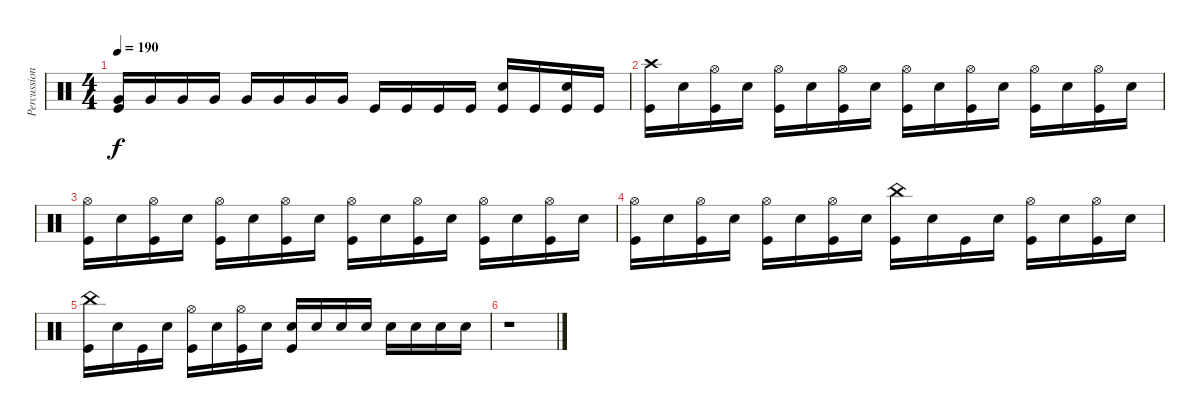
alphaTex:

\track ("Percussion" "Percussion") {instrument percussion}
\staff {score}
\articulation defaults
\ts (4 4)
\tempo 190
\clef neutral
\ks c
("Very Low Tom (hit)" "Kick (hit)").16{dy f} "Very Low Tom (hit)".16 "Very Low Tom (hit)".16 "Very Low Tom (hit)".16 "Very Low Tom (hit)".16 "Very Low Tom (hit)".16 "Very Low Tom (hit)".16 "Very Low Tom (hit)".16 "Kick (hit)".16 "Kick (hit)".16 "Kick (hit)".16 "Kick (hit)".16 ("Snare (hit) 2" "Kick (hit)").16 "Kick (hit)".16 ("Snare (hit) 2" "Kick (hit)").16 "Kick (hit)".16 |
("Crash high (hit)" "Kick (hit)").16 "Snare (hit) 2".16 ("Hi-Hat (open)" "Kick (hit)").16 "Snare (hit) 2".16 ("Hi-Hat (open)" "Kick (hit)").16 "Snare (hit) 2".16 ("Hi-Hat (open)" "Kick (hit)").16 "Snare (hit) 2".16 ("Hi-Hat (open)" "Kick (hit)").16 "Snare (hit) 2".16 ("Hi-Hat (open)" "Kick (hit)").16 "Snare (hit) 2".16 ("Hi-Hat (open)" "Kick (hit)").16 "Snare (hit) 2".16 ("Hi-Hat (open)" "Kick (hit)").16 "Snare (hit) 2".16 |
("Hi-Hat (open)" "Kick (hit)").16 "Snare (hit) 2".16 ("Hi-Hat (open)" "Kick (hit)").16 "Snare (hit) 2".16 ("Hi-Hat (open)" "Kick (hit)").16 "Snare (hit) 2".16 ("Hi-Hat (open)" "Kick (hit)").16 "Snare (hit) 2".16 ("Hi-Hat (open)" "Kick (hit)").16 "Snare (hit) 2".16 ("Hi-Hat (open)" "Kick (hit)").16 "Snare (hit) 2".16 ("Hi-Hat (open)" "Kick (hit)").16 "Snare (hit) 2".16 ("Hi-Hat (open)" "Kick (hit)").16 "Snare (hit) 2".16 |
("Hi-Hat (open)" "Kick (hit)").16 "Snare (hit) 2".16 ("Hi-Hat (open)" "Kick (hit)").16 "Snare (hit) 2".16 ("Hi-Hat (open)" "Kick (hit)").16 "Snare (hit) 2".16 ("Hi-Hat (open)" "Kick (hit)").16 "Snare (hit) 2".16 ("China (hit)" "Kick (hit)").16 "Snare (hit) 2".16 "Kick (hit)".16 "Snare (hit) 2".16 ("Hi-Hat (open)" "Kick (hit)").16 "Snare (hit) 2".16 ("Hi-Hat (open)" "Kick (hit)").16 "Snare (hit) 2".16 |
("China (hit)" "Kick (hit)").16 "Snare (hit) 2".16 "Kick (hit)".16 "Snare (hit) 2".16 ("Hi-Hat (open)" "Kick (hit)").16 "Snare (hit) 2".16 ("Hi-Hat (open)" "Kick (hit)").16 "Snare (hit) 2".16 ("Snare (hit) 2" "Kick (hit)").16 "Snare (hit) 2".16 "Snare (hit) 2".16 "Snare (hit) 2".16 "Snare (hit) 2".16 "Snare (hit) 2".16 "Snare (hit) 2".16 "Snare (hit) 2".16 |
r.1
